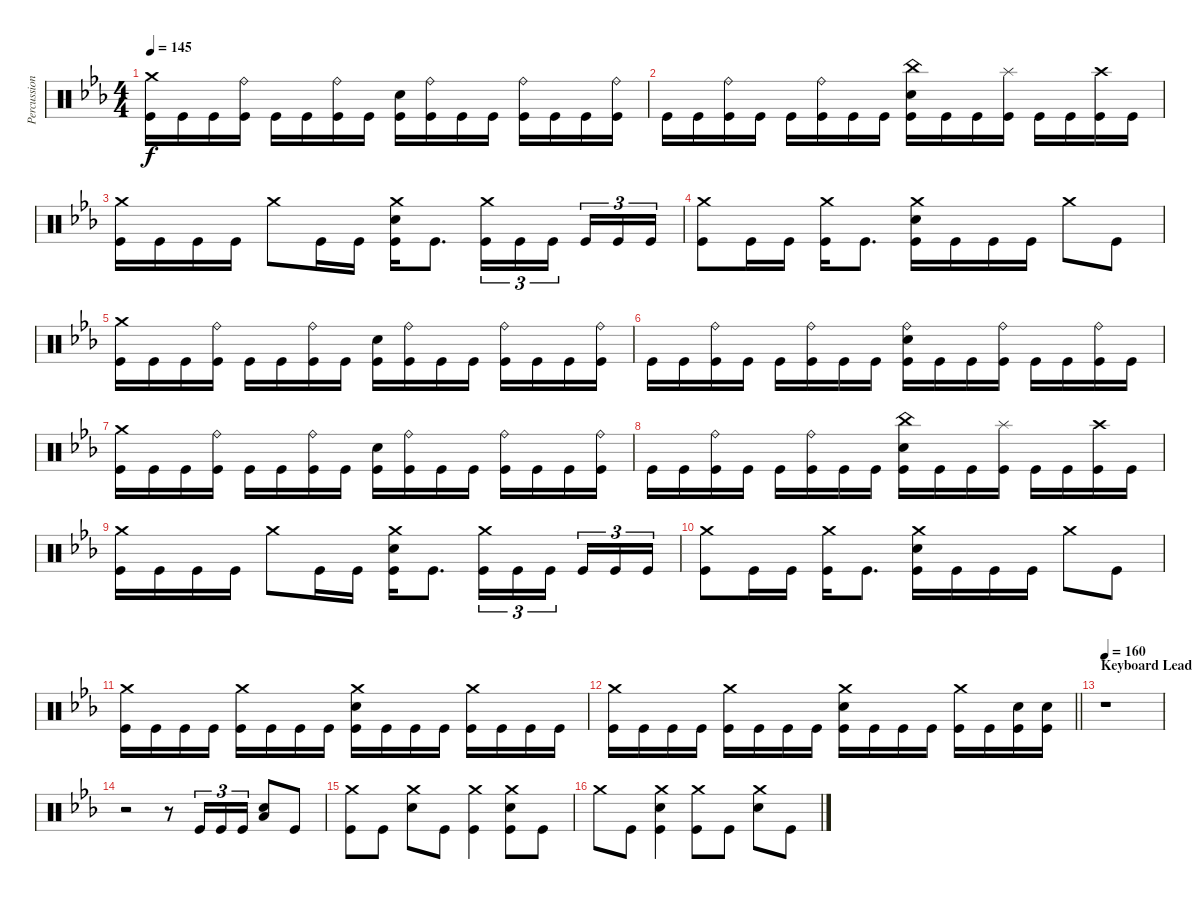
\track ("Percussion" "Percussion") {instrument percussion}
\staff {score}
\articulation defaults
\ts (4 4)
\tempo 145
\clef neutral
\ks eb
("Crash medium (hit)" "Kick (hit)").16{dy f} "Kick (hit)".16 "Kick (hit)".16 ("Ride (bell)" "Kick (hit)").16 "Kick (hit)".16 "Kick (hit)".16 ("Ride (bell)" "Kick (hit)").16 "Kick (hit)".16 ("Electric Snare (hit)" "Kick (hit)").16 ("Ride (bell)" "Kick (hit)").16 "Kick (hit)".16 "Kick (hit)".16 ("Ride (bell)" "Kick (hit)").16 "Kick (hit)".16 "Kick (hit)".16 ("Ride (bell)" "Kick (hit)").16 |
"Kick (hit)".16 "Kick (hit)".16 ("Ride (bell)" "Kick (hit)").16 "Kick (hit)".16 "Kick (hit)".16 ("Ride (bell)" "Kick (hit)").16 "Kick (hit)".16 "Kick (hit)".16 ("China (hit)" "Electric Snare (hit)" "Kick (hit)").16 "Kick (hit)".16 "Kick (hit)".16 ("Splash (hit)" "Kick (hit)").16 "Kick (hit)".16 "Kick (hit)".16 ("Crash high (hit)" "Kick (hit)").16 "Kick (hit)".16 |
("Crash medium (hit)" "Kick (hit)").16 "Kick (hit)".16 "Kick (hit)".16 "Kick (hit)".16 "Crash medium (hit)".8 "Kick (hit)".16 "Kick (hit)".16 ("Crash medium (hit)" "Electric Snare (hit)" "Kick (hit)").16 "Kick (hit)".8{d} ("Crash medium (hit)" "Kick (hit)").16{tu (3 2)} "Kick (hit)".16{tu (3 2)} "Kick (hit)".16{tu (3 2) beam splitsecondary} "Kick (hit)".16{tu (3 2)} "Kick (hit)".16{tu (3 2)} "Kick (hit)".16{tu (3 2)} |
("Crash medium (hit)" "Kick (hit)").8 "Kick (hit)".16 "Kick (hit)".16 ("Crash medium (hit)" "Kick (hit)").16 "Kick (hit)".8{d} ("Crash medium (hit)" "Electric Snare (hit)" "Kick (hit)").16 "Kick (hit)".16 "Kick (hit)".16 "Kick (hit)".16 "Crash medium (hit)".8 "Kick (hit)".8 |
("Crash medium (hit)" "Kick (hit)").16 "Kick (hit)".16 "Kick (hit)".16 ("Ride (bell)" "Kick (hit)").16 "Kick (hit)".16 "Kick (hit)".16 ("Ride (bell)" "Kick (hit)").16 "Kick (hit)".16 ("Electric Snare (hit)" "Kick (hit)").16 ("Ride (bell)" "Kick (hit)").16 "Kick (hit)".16 "Kick (hit)".16 ("Ride (bell)" "Kick (hit)").16 "Kick (hit)".16 "Kick (hit)".16 ("Ride (bell)" "Kick (hit)").16 |
"Kick (hit)".16 "Kick (hit)".16 ("Ride (bell)" "Kick (hit)").16 "Kick (hit)".16 "Kick (hit)".16 ("Ride (bell)" "Kick (hit)").16 "Kick (hit)".16 "Kick (hit)".16 ("Ride (bell)" "Electric Snare (hit)" "Kick (hit)").16 "Kick (hit)".16 "Kick (hit)".16 ("Ride (bell)" "Kick (hit)").16 "Kick (hit)".16 "Kick (hit)".16 ("Ride (bell)" "Kick (hit)").16 "Kick (hit)".16 |
("Crash medium (hit)" "Kick (hit)").16 "Kick (hit)".16 "Kick (hit)".16 ("Ride (bell)" "Kick (hit)").16 "Kick (hit)".16 "Kick (hit)".16 ("Ride (bell)" "Kick (hit)").16 "Kick (hit)".16 ("Electric Snare (hit)" "Kick (hit)").16 ("Ride (bell)" "Kick (hit)").16 "Kick (hit)".16 "Kick (hit)".16 ("Ride (bell)" "Kick (hit)").16 "Kick (hit)".16 "Kick (hit)".16 ("Ride (bell)" "Kick (hit)").16 |
"Kick (hit)".16 "Kick (hit)".16 ("Ride (bell)" "Kick (hit)").16 "Kick (hit)".16 "Kick (hit)".16 ("Ride (bell)" "Kick (hit)").16 "Kick (hit)".16 "Kick (hit)".16 ("China (hit)" "Electric Snare (hit)" "Kick (hit)").16 "Kick (hit)".16 "Kick (hit)".16 ("Splash (hit)" "Kick (hit)").16 "Kick (hit)".16 "Kick (hit)".16 ("Crash high (hit)" "Kick (hit)").16 "Kick (hit)".16 |
("Crash medium (hit)" "Kick (hit)").16 "Kick (hit)".16 "Kick (hit)".16 "Kick (hit)".16 "Crash medium (hit)".8 "Kick (hit)".16 "Kick (hit)".16 ("Crash medium (hit)" "Electric Snare (hit)" "Kick (hit)").16 "Kick (hit)".8{d} ("Crash medium (hit)" "Kick (hit)").16{tu (3 2)} "Kick (hit)".16{tu (3 2)} "Kick (hit)".16{tu (3 2) beam splitsecondary} "Kick (hit)".16{tu (3 2)} "Kick (hit)".16{tu (3 2)} "Kick (hit)".16{tu (3 2)} |
("Crash medium (hit)" "Kick (hit)").8 "Kick (hit)".16 "Kick (hit)".16 ("Crash medium (hit)" "Kick (hit)").16 "Kick (hit)".8{d} ("Crash medium (hit)" "Electric Snare (hit)" "Kick (hit)").16 "Kick (hit)".16 "Kick (hit)".16 "Kick (hit)".16 "Crash medium (hit)".8 "Kick (hit)".8 |
("Crash medium (hit)" "Kick (hit)").16 "Kick (hit)".16 "Kick (hit)".16 "Kick (hit)".16 ("Crash medium (hit)" "Kick (hit)").16 "Kick (hit)".16 "Kick (hit)".16 "Kick (hit)".16 ("Crash medium (hit)" "Electric Snare (hit)" "Kick (hit)").16 "Kick (hit)".16 "Kick (hit)".16 "Kick (hit)".16 ("Crash medium (hit)" "Kick (hit)").16 "Kick (hit)".16 "Kick (hit)".16 "Kick (hit)".16 |
\barLineRight lightlight
("Crash medium (hit)" "Kick (hit)").16 "Kick (hit)".16 "Kick (hit)".16 "Kick (hit)".16 ("Crash medium (hit)" "Kick (hit)").16 "Kick (hit)".16 "Kick (hit)".16 "Kick (hit)".16 ("Crash medium (hit)" "Electric Snare (hit)" "Kick (hit)").16 "Kick (hit)".16 "Kick (hit)".16 "Kick (hit)".16 ("Crash medium (hit)" "Kick (hit)").16 "Kick (hit)".16 ("Electric Snare (hit)" "Kick (hit)").16 ("Electric Snare (hit)" "Kick (hit)").16 |
\section ("" "Keyboard Lead")
\tempo 160
r.1 |
r.2 r.8 "Kick (hit)".16{tu (3 2)} "Kick (hit)".16{tu (3 2)} "Kick (hit)".16{tu (3 2)} ("Electric Snare (hit)" "Low Floor Tom (hit)").8 "Kick (hit)".8 |
("Crash medium (hit)" "Kick (hit)").8 "Kick (hit)".8 ("Crash medium (hit)" "Electric Snare (hit)").8 "Kick (hit)".8 ("Crash medium (hit)" "Kick (hit)").4 ("Crash medium (hit)" "Electric Snare (hit)" "Kick (hit)").8 "Kick (hit)".8 |
"Crash medium (hit)".8 "Kick (hit)".8 ("Crash medium (hit)" "Electric Snare (hit)" "Kick (hit)").4 ("Crash medium (hit)" "Kick (hit)").8 "Kick (hit)".8 ("Crash medium (hit)" "Electric Snare (hit)").8 "Kick (hit)".8
